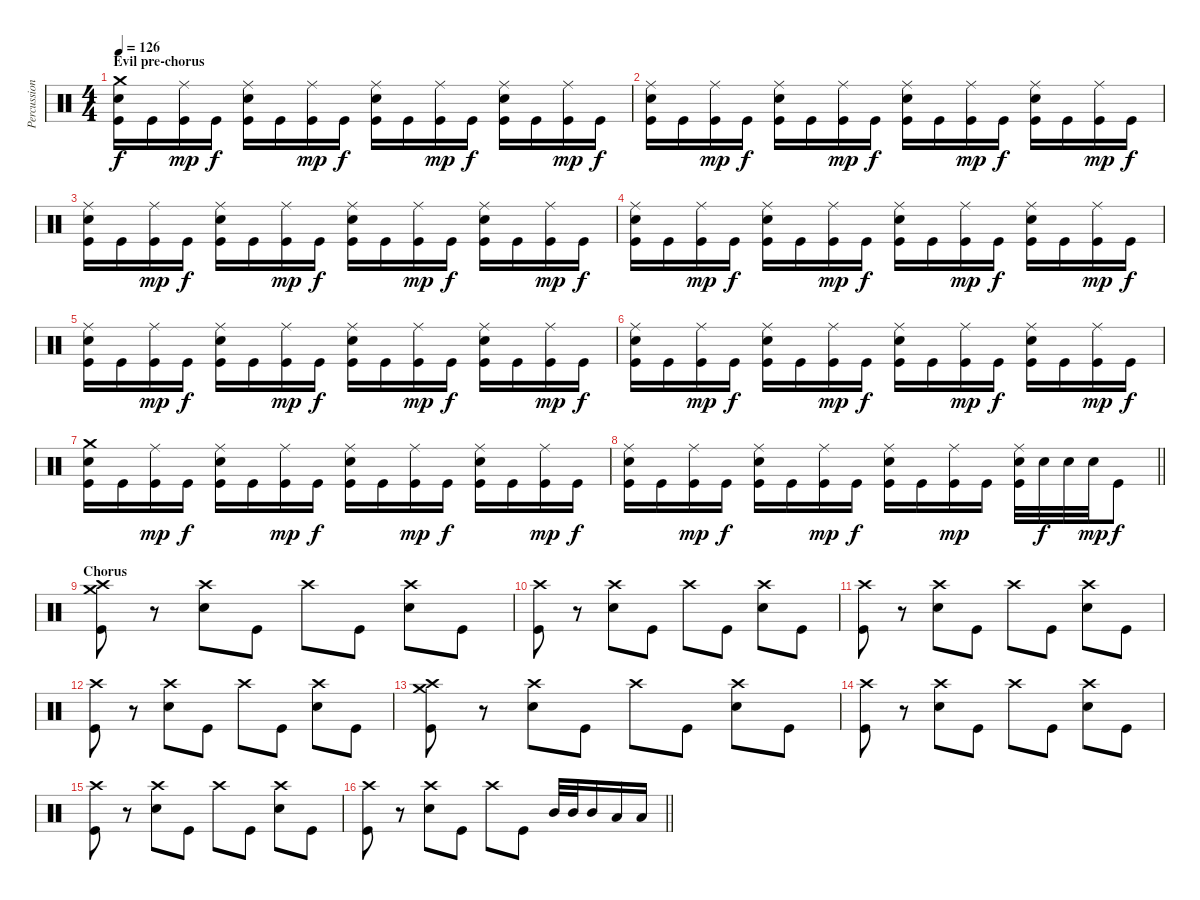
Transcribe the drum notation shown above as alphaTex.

\track ("Percussion" "Percussion") {instrument percussion}
\staff {score}
\articulation defaults
\ts (4 4)
\section ("" "Evil pre-chorus")
\tempo 126
\clef neutral
\ks c
("Crash medium (hit)" "Snare (hit) 2" "Kick (hit)").16{dy f} "Kick (hit)".16 ("Ride (middle)" "Kick (hit)").16{dy mp} "Kick (hit)".16{dy f} ("Ride (middle)" "Snare (hit) 2" "Kick (hit)").16 "Kick (hit)".16 ("Ride (middle)" "Kick (hit)").16{dy mp} "Kick (hit)".16{dy f} ("Ride (middle)" "Snare (hit) 2" "Kick (hit)").16 "Kick (hit)".16 ("Ride (middle)" "Kick (hit)").16{dy mp} "Kick (hit)".16{dy f} ("Ride (middle)" "Snare (hit) 2" "Kick (hit)").16 "Kick (hit)".16 ("Ride (middle)" "Kick (hit)").16{dy mp} "Kick (hit)".16{dy f} |
("Ride (middle)" "Snare (hit) 2" "Kick (hit)").16 "Kick (hit)".16 ("Ride (middle)" "Kick (hit)").16{dy mp} "Kick (hit)".16{dy f} ("Ride (middle)" "Snare (hit) 2" "Kick (hit)").16 "Kick (hit)".16 ("Ride (middle)" "Kick (hit)").16{dy mp} "Kick (hit)".16{dy f} ("Ride (middle)" "Snare (hit) 2" "Kick (hit)").16 "Kick (hit)".16 ("Ride (middle)" "Kick (hit)").16{dy mp} "Kick (hit)".16{dy f} ("Ride (middle)" "Snare (hit) 2" "Kick (hit)").16 "Kick (hit)".16 ("Ride (middle)" "Kick (hit)").16{dy mp} "Kick (hit)".16{dy f} |
("Ride (middle)" "Snare (hit) 2" "Kick (hit)").16 "Kick (hit)".16 ("Ride (middle)" "Kick (hit)").16{dy mp} "Kick (hit)".16{dy f} ("Ride (middle)" "Snare (hit) 2" "Kick (hit)").16 "Kick (hit)".16 ("Ride (middle)" "Kick (hit)").16{dy mp} "Kick (hit)".16{dy f} ("Ride (middle)" "Snare (hit) 2" "Kick (hit)").16 "Kick (hit)".16 ("Ride (middle)" "Kick (hit)").16{dy mp} "Kick (hit)".16{dy f} ("Ride (middle)" "Snare (hit) 2" "Kick (hit)").16 "Kick (hit)".16 ("Ride (middle)" "Kick (hit)").16{dy mp} "Kick (hit)".16{dy f} |
("Ride (middle)" "Snare (hit) 2" "Kick (hit)").16 "Kick (hit)".16 ("Ride (middle)" "Kick (hit)").16{dy mp} "Kick (hit)".16{dy f} ("Ride (middle)" "Snare (hit) 2" "Kick (hit)").16 "Kick (hit)".16 ("Ride (middle)" "Kick (hit)").16{dy mp} "Kick (hit)".16{dy f} ("Ride (middle)" "Snare (hit) 2" "Kick (hit)").16 "Kick (hit)".16 ("Ride (middle)" "Kick (hit)").16{dy mp} "Kick (hit)".16{dy f} ("Ride (middle)" "Snare (hit) 2" "Kick (hit)").16 "Kick (hit)".16 ("Ride (middle)" "Kick (hit)").16{dy mp} "Kick (hit)".16{dy f} |
("Ride (middle)" "Snare (hit) 2" "Kick (hit)").16 "Kick (hit)".16 ("Ride (middle)" "Kick (hit)").16{dy mp} "Kick (hit)".16{dy f} ("Ride (middle)" "Snare (hit) 2" "Kick (hit)").16 "Kick (hit)".16 ("Ride (middle)" "Kick (hit)").16{dy mp} "Kick (hit)".16{dy f} ("Ride (middle)" "Snare (hit) 2" "Kick (hit)").16 "Kick (hit)".16 ("Ride (middle)" "Kick (hit)").16{dy mp} "Kick (hit)".16{dy f} ("Ride (middle)" "Snare (hit) 2" "Kick (hit)").16 "Kick (hit)".16 ("Ride (middle)" "Kick (hit)").16{dy mp} "Kick (hit)".16{dy f} |
("Ride (middle)" "Snare (hit) 2" "Kick (hit)").16 "Kick (hit)".16 ("Ride (middle)" "Kick (hit)").16{dy mp} "Kick (hit)".16{dy f} ("Ride (middle)" "Snare (hit) 2" "Kick (hit)").16 "Kick (hit)".16 ("Ride (middle)" "Kick (hit)").16{dy mp} "Kick (hit)".16{dy f} ("Ride (middle)" "Snare (hit) 2" "Kick (hit)").16 "Kick (hit)".16 ("Ride (middle)" "Kick (hit)").16{dy mp} "Kick (hit)".16{dy f} ("Ride (middle)" "Snare (hit) 2" "Kick (hit)").16 "Kick (hit)".16 ("Ride (middle)" "Kick (hit)").16{dy mp} "Kick (hit)".16{dy f} |
("Crash medium (hit)" "Snare (hit) 2" "Kick (hit)").16 "Kick (hit)".16 ("Ride (middle)" "Kick (hit)").16{dy mp} "Kick (hit)".16{dy f} ("Ride (middle)" "Snare (hit) 2" "Kick (hit)").16 "Kick (hit)".16 ("Ride (middle)" "Kick (hit)").16{dy mp} "Kick (hit)".16{dy f} ("Ride (middle)" "Snare (hit) 2" "Kick (hit)").16 "Kick (hit)".16 ("Ride (middle)" "Kick (hit)").16{dy mp} "Kick (hit)".16{dy f} ("Ride (middle)" "Snare (hit) 2" "Kick (hit)").16 "Kick (hit)".16 ("Ride (middle)" "Kick (hit)").16{dy mp} "Kick (hit)".16{dy f} |
\barLineRight lightlight
("Ride (middle)" "Snare (hit) 2" "Kick (hit)").16 "Kick (hit)".16 ("Ride (middle)" "Kick (hit)").16{dy mp} "Kick (hit)".16{dy f} ("Ride (middle)" "Snare (hit) 2" "Kick (hit)").16 "Kick (hit)".16 ("Ride (middle)" "Kick (hit)").16{dy mp} "Kick (hit)".16{dy f} ("Ride (middle)" "Snare (hit) 2" "Kick (hit)").16 "Kick (hit)".16 ("Ride (middle)" "Kick (hit)").16{dy mp} "Kick (hit)".16 ("Ride (middle)" "Snare (hit) 2" "Kick (hit)").32 "Snare (hit) 2".32{dy f} "Snare (hit) 2".32 "Snare (hit) 2".32{dy mp} "Kick (hit)".8{dy f} |
\section ("" "Chorus")
("Crash high (hit)" "Crash medium (hit)" "Kick (hit)").8 r.8 ("Crash high (hit)" "Snare (hit) 2").8 "Kick (hit)".8 "Crash high (hit)".8 "Kick (hit)".8 ("Crash high (hit)" "Snare (hit) 2").8 "Kick (hit)".8 |
("Crash high (hit)" "Kick (hit)").8 r.8 ("Crash high (hit)" "Snare (hit) 2").8 "Kick (hit)".8 "Crash high (hit)".8 "Kick (hit)".8 ("Crash high (hit)" "Snare (hit) 2").8 "Kick (hit)".8 |
("Crash high (hit)" "Kick (hit)").8 r.8 ("Crash high (hit)" "Snare (hit) 2").8 "Kick (hit)".8 "Crash high (hit)".8 "Kick (hit)".8 ("Crash high (hit)" "Snare (hit) 2").8 "Kick (hit)".8 |
("Crash high (hit)" "Kick (hit)").8 r.8 ("Crash high (hit)" "Snare (hit) 2").8 "Kick (hit)".8 "Crash high (hit)".8 "Kick (hit)".8 ("Crash high (hit)" "Snare (hit) 2").8 "Kick (hit)".8 |
("Crash high (hit)" "Crash medium (hit)" "Kick (hit)").8 r.8 ("Crash high (hit)" "Snare (hit) 2").8 "Kick (hit)".8 "Crash high (hit)".8 "Kick (hit)".8 ("Crash high (hit)" "Snare (hit) 2").8 "Kick (hit)".8 |
("Crash high (hit)" "Kick (hit)").8 r.8 ("Crash high (hit)" "Snare (hit) 2").8 "Kick (hit)".8 "Crash high (hit)".8 "Kick (hit)".8 ("Crash high (hit)" "Snare (hit) 2").8 "Kick (hit)".8 |
("Crash high (hit)" "Kick (hit)").8 r.8 ("Crash high (hit)" "Snare (hit) 2").8 "Kick (hit)".8 "Crash high (hit)".8 "Kick (hit)".8 ("Crash high (hit)" "Snare (hit) 2").8 "Kick (hit)".8 |
\barLineRight lightlight
("Crash high (hit)" "Kick (hit)").8 r.8 ("Crash high (hit)" "Snare (hit) 2").8 "Kick (hit)".8 "Crash high (hit)".8 "Kick (hit)".8 "Mid Tom (hit)".32 "Mid Tom (hit)".32 "Mid Tom (hit)".16 "Low Tom (hit)".16 "Low Tom (hit)".16
